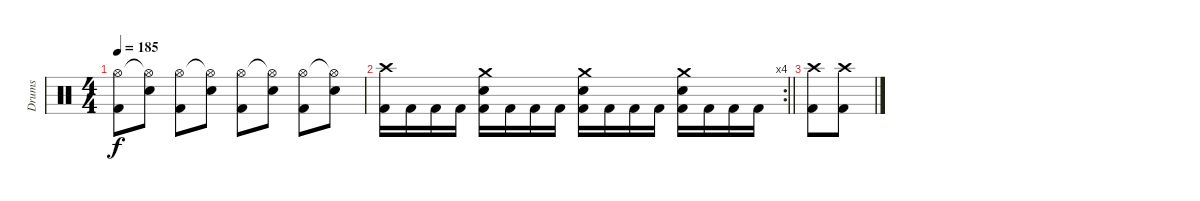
\track ("Drums" "Drums") {instrument percussion}
\staff {score}
\articulation defaults
\ts (4 4)
\tempo 185
\clef neutral
\ks c
("Hi-Hat (open)" "Kick (hit) 2").8{dy f} ("Hi-Hat (open)"{t} "Electric Snare (hit)").8 ("Hi-Hat (open)" "Kick (hit) 2").8 ("Hi-Hat (open)"{t} "Electric Snare (hit)").8 ("Hi-Hat (open)" "Kick (hit) 2").8 ("Hi-Hat (open)"{t} "Electric Snare (hit)").8 ("Hi-Hat (open)" "Kick (hit) 2").8 ("Hi-Hat (open)"{t} "Electric Snare (hit)").8 |
\rc 4
\barLineRight lightlight
("Crash high (hit)" "Kick (hit) 2").16 "Kick (hit) 2".16 "Kick (hit) 2".16 "Kick (hit) 2".16 ("Crash medium (hit)" "Electric Snare (hit)" "Kick (hit) 2").16 "Kick (hit) 2".16 "Kick (hit) 2".16 "Kick (hit) 2".16 ("Crash medium (hit)" "Electric Snare (hit)" "Kick (hit) 2").16 "Kick (hit) 2".16 "Kick (hit) 2".16 "Kick (hit) 2".16 ("Crash medium (hit)" "Electric Snare (hit)" "Kick (hit) 2").16 "Kick (hit) 2".16 "Kick (hit) 2".16 "Kick (hit) 2".16 |
("Crash high (hit)" "Kick (hit) 2").8 ("Crash high (hit)" "Kick (hit) 2").8
